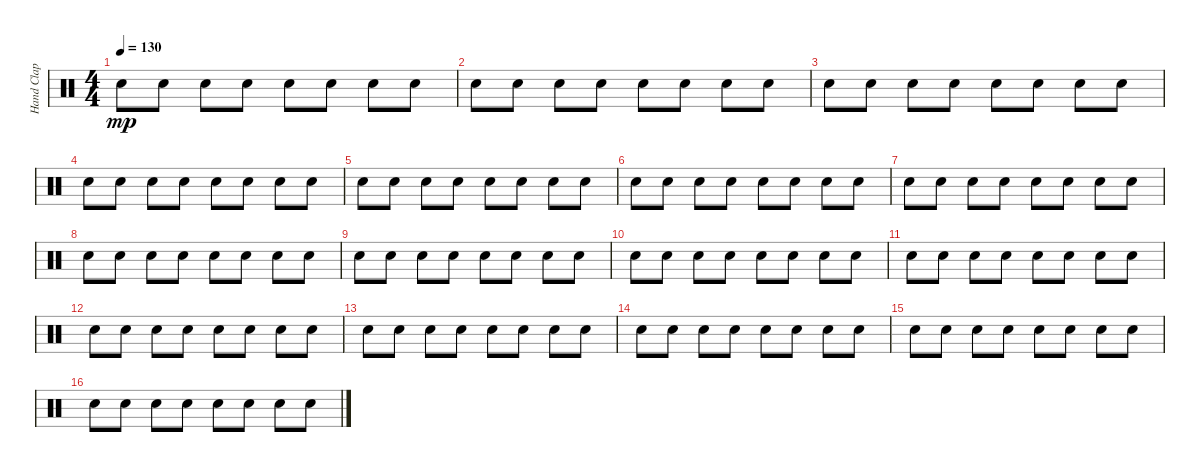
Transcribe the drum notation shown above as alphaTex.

\track ("Hand Clap" "Hand Clap") {instrument percussion}
\staff {score}
\articulation defaults
\ts (4 4)
\tempo 130
\clef neutral
\ks c "Hand Clap (hit)".8{dy mp} "Hand Clap (hit)".8 "Hand Clap (hit)".8 "Hand Clap (hit)".8 "Hand Clap (hit)".8 "Hand Clap (hit)".8 "Hand Clap (hit)".8 "Hand Clap (hit)".8
|
"Hand Clap (hit)".8 "Hand Clap (hit)".8 "Hand Clap (hit)".8 "Hand Clap (hit)".8 "Hand Clap (hit)".8 "Hand Clap (hit)".8 "Hand Clap (hit)".8 "Hand Clap (hit)".8 |
"Hand Clap (hit)".8 "Hand Clap (hit)".8 "Hand Clap (hit)".8 "Hand Clap (hit)".8 "Hand Clap (hit)".8 "Hand Clap (hit)".8 "Hand Clap (hit)".8 "Hand Clap (hit)".8 |
"Hand Clap (hit)".8 "Hand Clap (hit)".8 "Hand Clap (hit)".8 "Hand Clap (hit)".8 "Hand Clap (hit)".8 "Hand Clap (hit)".8 "Hand Clap (hit)".8 "Hand Clap (hit)".8 |
"Hand Clap (hit)".8 "Hand Clap (hit)".8 "Hand Clap (hit)".8 "Hand Clap (hit)".8 "Hand Clap (hit)".8 "Hand Clap (hit)".8 "Hand Clap (hit)".8 "Hand Clap (hit)".8 |
"Hand Clap (hit)".8 "Hand Clap (hit)".8 "Hand Clap (hit)".8 "Hand Clap (hit)".8 "Hand Clap (hit)".8 "Hand Clap (hit)".8 "Hand Clap (hit)".8 "Hand Clap (hit)".8 |
"Hand Clap (hit)".8 "Hand Clap (hit)".8 "Hand Clap (hit)".8 "Hand Clap (hit)".8 "Hand Clap (hit)".8 "Hand Clap (hit)".8 "Hand Clap (hit)".8 "Hand Clap (hit)".8 |
"Hand Clap (hit)".8 "Hand Clap (hit)".8 "Hand Clap (hit)".8 "Hand Clap (hit)".8 "Hand Clap (hit)".8 "Hand Clap (hit)".8 "Hand Clap (hit)".8 "Hand Clap (hit)".8 |
"Hand Clap (hit)".8 "Hand Clap (hit)".8 "Hand Clap (hit)".8 "Hand Clap (hit)".8 "Hand Clap (hit)".8 "Hand Clap (hit)".8 "Hand Clap (hit)".8 "Hand Clap (hit)".8 |
"Hand Clap (hit)".8 "Hand Clap (hit)".8 "Hand Clap (hit)".8 "Hand Clap (hit)".8 "Hand Clap (hit)".8 "Hand Clap (hit)".8 "Hand Clap (hit)".8 "Hand Clap (hit)".8 |
"Hand Clap (hit)".8 "Hand Clap (hit)".8 "Hand Clap (hit)".8 "Hand Clap (hit)".8 "Hand Clap (hit)".8 "Hand Clap (hit)".8 "Hand Clap (hit)".8 "Hand Clap (hit)".8 |
"Hand Clap (hit)".8 "Hand Clap (hit)".8 "Hand Clap (hit)".8 "Hand Clap (hit)".8 "Hand Clap (hit)".8 "Hand Clap (hit)".8 "Hand Clap (hit)".8 "Hand Clap (hit)".8 |
"Hand Clap (hit)".8 "Hand Clap (hit)".8 "Hand Clap (hit)".8 "Hand Clap (hit)".8 "Hand Clap (hit)".8 "Hand Clap (hit)".8 "Hand Clap (hit)".8 "Hand Clap (hit)".8 |
"Hand Clap (hit)".8 "Hand Clap (hit)".8 "Hand Clap (hit)".8 "Hand Clap (hit)".8 "Hand Clap (hit)".8 "Hand Clap (hit)".8 "Hand Clap (hit)".8 "Hand Clap (hit)".8 |
"Hand Clap (hit)".8 "Hand Clap (hit)".8 "Hand Clap (hit)".8 "Hand Clap (hit)".8 "Hand Clap (hit)".8 "Hand Clap (hit)".8 "Hand Clap (hit)".8 "Hand Clap (hit)".8 |
"Hand Clap (hit)".8 "Hand Clap (hit)".8 "Hand Clap (hit)".8 "Hand Clap (hit)".8 "Hand Clap (hit)".8 "Hand Clap (hit)".8 "Hand Clap (hit)".8 "Hand Clap (hit)".8
